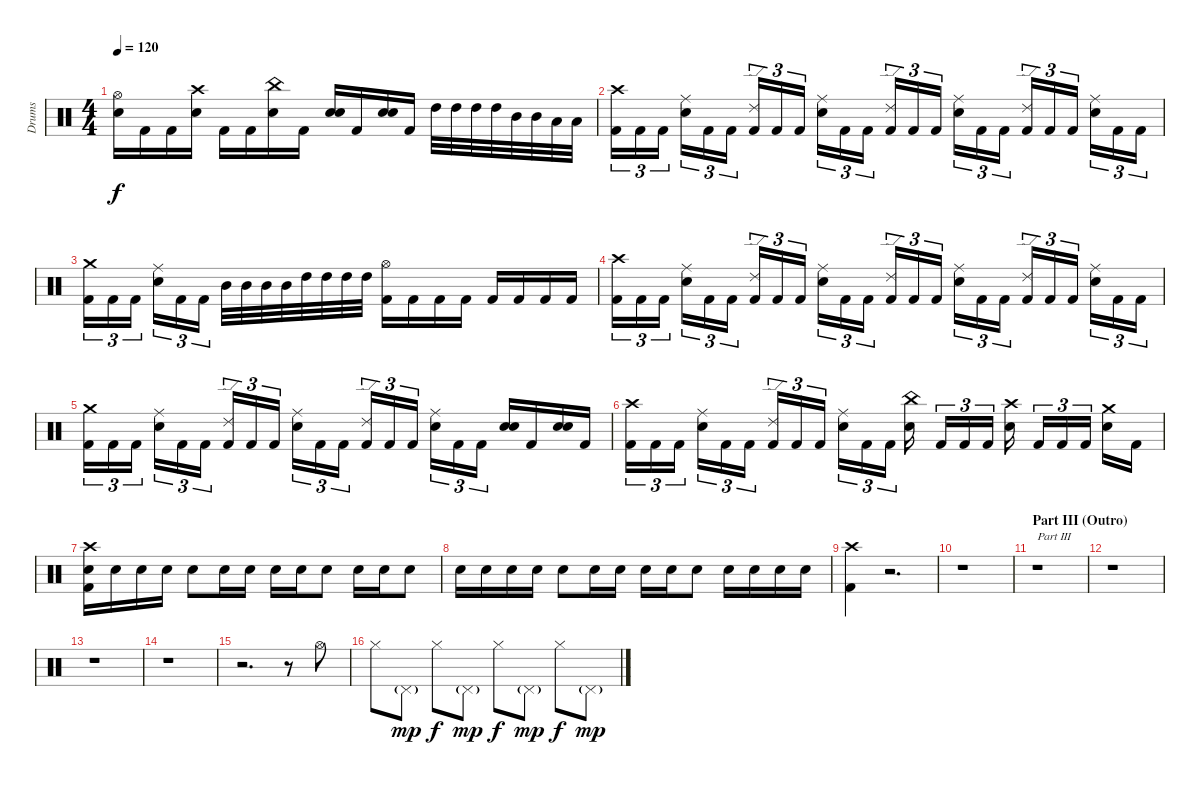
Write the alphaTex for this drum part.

\track ("Drums" "Drums") {instrument percussion}
\staff {score}
\articulation defaults
\ts (4 4)
\tempo 120
\clef neutral
\ks c
("Hi-Hat (open)" "Snare (hit) 2").16{dy f} "Kick (hit) 2".16 "Kick (hit) 2".16 ("Crash high (hit)" "Snare (hit) 2").16 "Kick (hit) 2".16 "Kick (hit) 2".16 ("China (hit)" "Snare (hit) 2").16 "Kick (hit) 2".16 ("Snare (hit) 2" "Snare (hit) 2").16{bd 60} "Kick (hit) 2".16 ("Snare (hit) 2" "Snare (hit) 2").16{bd 60} "Kick (hit) 2".16 "High Tom (hit)".32 "High Tom (hit)".32 "High Tom (hit)".32 "High Tom (hit)".32 "Mid Tom (hit)".32 "Mid Tom (hit)".32 "Low Tom (hit)".32 "Low Tom (hit)".32 |
("Crash high (hit)" "Kick (hit) 2").16{tu (3 2)} "Kick (hit) 2".16{tu (3 2)} "Kick (hit) 2".16{tu (3 2)} ("Ride (middle)" "Snare (hit) 2").16{tu (3 2)} "Kick (hit) 2".16{tu (3 2)} "Kick (hit) 2".16{tu (3 2)} ("Ride (edge) 2" "Kick (hit) 2").16{tu (3 2)} "Kick (hit) 2".16{tu (3 2)} "Kick (hit) 2".16{tu (3 2)} ("Ride (middle)" "Snare (hit) 2").16{tu (3 2)} "Kick (hit) 2".16{tu (3 2)} "Kick (hit) 2".16{tu (3 2)} ("Ride (edge) 2" "Kick (hit) 2").16{tu (3 2)} "Kick (hit) 2".16{tu (3 2)} "Kick (hit) 2".16{tu (3 2)} ("Ride (middle)" "Snare (hit) 2").16{tu (3 2)} "Kick (hit) 2".16{tu (3 2)} "Kick (hit) 2".16{tu (3 2)} ("Ride (edge) 2" "Kick (hit) 2").16{tu (3 2)} "Kick (hit) 2".16{tu (3 2)} "Kick (hit) 2".16{tu (3 2)} ("Ride (middle)" "Snare (hit) 2").16{tu (3 2)} "Kick (hit) 2".16{tu (3 2)} "Kick (hit) 2".16{tu (3 2)} |
("Crash medium (hit)" "Kick (hit) 2").16{tu (3 2)} "Kick (hit) 2".16{tu (3 2)} "Kick (hit) 2".16{tu (3 2)} ("Ride (middle)" "Snare (hit) 2").16{tu (3 2)} "Kick (hit) 2".16{tu (3 2)} "Kick (hit) 2".16{tu (3 2)} "Mid Tom (hit)".32 "Mid Tom (hit)".32 "Mid Tom (hit)".32 "Mid Tom (hit)".32 "High Tom (hit)".32 "High Tom (hit)".32 "High Tom (hit)".32 "High Tom (hit)".32 ("Hi-Hat (open)" "Kick (hit) 2").16 "Kick (hit) 2".16 "Kick (hit) 2".16 "Kick (hit) 2".16 "Kick (hit) 2".16 "Kick (hit) 2".16 "Kick (hit) 2".16 "Kick (hit) 2".16 |
("Crash high (hit)" "Kick (hit) 2").16{tu (3 2)} "Kick (hit) 2".16{tu (3 2)} "Kick (hit) 2".16{tu (3 2)} ("Ride (middle)" "Snare (hit) 2").16{tu (3 2)} "Kick (hit) 2".16{tu (3 2)} "Kick (hit) 2".16{tu (3 2)} ("Ride (edge) 2" "Kick (hit) 2").16{tu (3 2)} "Kick (hit) 2".16{tu (3 2)} "Kick (hit) 2".16{tu (3 2)} ("Ride (middle)" "Snare (hit) 2").16{tu (3 2)} "Kick (hit) 2".16{tu (3 2)} "Kick (hit) 2".16{tu (3 2)} ("Ride (edge) 2" "Kick (hit) 2").16{tu (3 2)} "Kick (hit) 2".16{tu (3 2)} "Kick (hit) 2".16{tu (3 2)} ("Ride (middle)" "Snare (hit) 2").16{tu (3 2)} "Kick (hit) 2".16{tu (3 2)} "Kick (hit) 2".16{tu (3 2)} ("Ride (edge) 2" "Kick (hit) 2").16{tu (3 2)} "Kick (hit) 2".16{tu (3 2)} "Kick (hit) 2".16{tu (3 2)} ("Ride (middle)" "Snare (hit) 2").16{tu (3 2)} "Kick (hit) 2".16{tu (3 2)} "Kick (hit) 2".16{tu (3 2)} |
("Crash medium (hit)" "Kick (hit) 2").16{tu (3 2)} "Kick (hit) 2".16{tu (3 2)} "Kick (hit) 2".16{tu (3 2)} ("Ride (middle)" "Snare (hit) 2").16{tu (3 2)} "Kick (hit) 2".16{tu (3 2)} "Kick (hit) 2".16{tu (3 2)} ("Ride (edge) 2" "Kick (hit) 2").16{tu (3 2)} "Kick (hit) 2".16{tu (3 2)} "Kick (hit) 2".16{tu (3 2)} ("Ride (middle)" "Snare (hit) 2").16{tu (3 2)} "Kick (hit) 2".16{tu (3 2)} "Kick (hit) 2".16{tu (3 2)} ("Ride (edge) 2" "Kick (hit) 2").16{tu (3 2)} "Kick (hit) 2".16{tu (3 2)} "Kick (hit) 2".16{tu (3 2)} ("Ride (middle)" "Snare (hit) 2").16{tu (3 2)} "Kick (hit) 2".16{tu (3 2)} "Kick (hit) 2".16{tu (3 2)} ("Snare (hit) 2" "Snare (hit) 2").16{bd 60} "Kick (hit) 2".16 ("Snare (hit) 2" "Snare (hit) 2").16{bd 60} "Kick (hit) 2".16 |
("Crash high (hit)" "Kick (hit) 2").16{tu (3 2)} "Kick (hit) 2".16{tu (3 2)} "Kick (hit) 2".16{tu (3 2)} ("Ride (middle)" "Snare (hit) 2").16{tu (3 2)} "Kick (hit) 2".16{tu (3 2)} "Kick (hit) 2".16{tu (3 2)} ("Ride (edge) 2" "Kick (hit) 2").16{tu (3 2)} "Kick (hit) 2".16{tu (3 2)} "Kick (hit) 2".16{tu (3 2)} ("Ride (middle)" "Snare (hit) 2").16{tu (3 2)} "Kick (hit) 2".16{tu (3 2)} "Kick (hit) 2".16{tu (3 2)} ("China (hit)" "Snare (hit) 2").16 "Kick (hit) 2".16{tu (3 2)} "Kick (hit) 2".16{tu (3 2)} "Kick (hit) 2".16{tu (3 2)} ("Crash high (hit)" "Snare (hit) 2").16 "Kick (hit) 2".16{tu (3 2)} "Kick (hit) 2".16{tu (3 2)} "Kick (hit) 2".16{tu (3 2)} ("Crash medium (hit)" "Snare (hit) 2").16 "Kick (hit) 2".16 |
("Crash high (hit)" "Snare (hit) 2" "Kick (hit) 2").16 "Snare (hit) 2".16 "Snare (hit) 2".16 "Snare (hit) 2".16 "Snare (hit) 2".8 "Snare (hit) 2".16 "Snare (hit) 2".16 "Snare (hit) 2".16 "Snare (hit) 2".16 "Snare (hit) 2".8 "Snare (hit) 2".16 "Snare (hit) 2".16 "Snare (hit) 2".8 |
"Snare (hit) 2".16 "Snare (hit) 2".16 "Snare (hit) 2".16 "Snare (hit) 2".16 "Snare (hit) 2".8 "Snare (hit) 2".16 "Snare (hit) 2".16 "Snare (hit) 2".16 "Snare (hit) 2".16 "Snare (hit) 2".8 "Snare (hit) 2".16 "Snare (hit) 2".16 "Snare (hit) 2".16 "Snare (hit) 2".16 |
("Crash high (hit)" "Kick (hit) 2").4 r.2{d} |
r.1 |
\section ("" "Part III (Outro)")
r.1{txt "Part III"} |
r.1 |
r.1 |
r.1 |
r.2{d} r.8 "Hi-Hat (open)".8 |
"Hi-Hat (closed)".8 "Pedal Hi-Hat (hit)"{g}.8{dy mp} "Hi-Hat (closed)".8{dy f} "Pedal Hi-Hat (hit)"{g}.8{dy mp} "Hi-Hat (closed)".8{dy f} "Pedal Hi-Hat (hit)"{g}.8{dy mp} "Hi-Hat (closed)".8{dy f} "Pedal Hi-Hat (hit)"{g}.8{dy mp}
